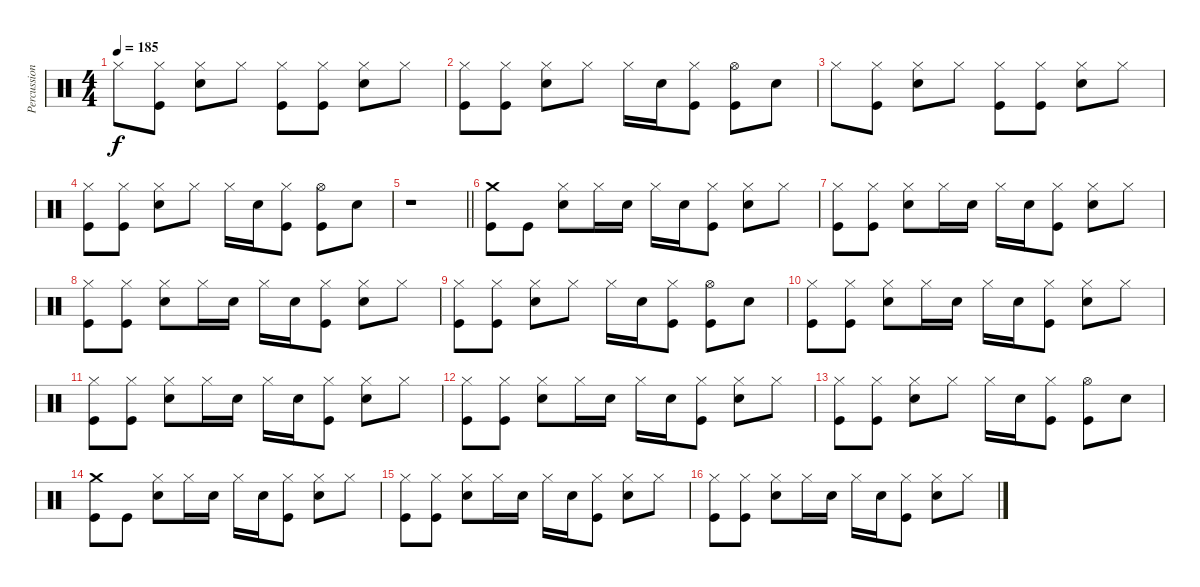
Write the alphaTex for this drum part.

\track ("Percussion" "Percussion") {instrument percussion}
\staff {score}
\articulation defaults
\ts (4 4)
\tempo 185
\clef neutral
\ks c "Hi-Hat (closed)".8{dy f}
("Hi-Hat (closed)" "Kick (hit)").8 ("Hi-Hat (closed)" "Electric Snare (hit)").8 "Hi-Hat (closed)".8 ("Hi-Hat (closed)" "Kick (hit)").8 ("Hi-Hat (closed)" "Kick (hit)").8 ("Hi-Hat (closed)" "Electric Snare (hit)").8 "Hi-Hat (closed)".8 |
("Hi-Hat (closed)" "Kick (hit)").8 ("Hi-Hat (closed)" "Kick (hit)").8 ("Hi-Hat (closed)" "Electric Snare (hit)").8 "Hi-Hat (closed)".8 "Hi-Hat (closed)".16 "Electric Snare (hit)".16 ("Hi-Hat (closed)" "Kick (hit)").8 ("Hi-Hat (open)" "Kick (hit)").8 "Electric Snare (hit)".8 |
"Hi-Hat (closed)".8 ("Hi-Hat (closed)" "Kick (hit)").8 ("Hi-Hat (closed)" "Electric Snare (hit)").8 "Hi-Hat (closed)".8 ("Hi-Hat (closed)" "Kick (hit)").8 ("Hi-Hat (closed)" "Kick (hit)").8 ("Hi-Hat (closed)" "Electric Snare (hit)").8 "Hi-Hat (closed)".8 |
("Hi-Hat (closed)" "Kick (hit)").8 ("Hi-Hat (closed)" "Kick (hit)").8 ("Hi-Hat (closed)" "Electric Snare (hit)").8 "Hi-Hat (closed)".8 "Hi-Hat (closed)".16 "Electric Snare (hit)".16 ("Hi-Hat (closed)" "Kick (hit)").8 ("Hi-Hat (open)" "Kick (hit)").8 "Electric Snare (hit)".8 |
\barLineRight lightlight
r.1 |
("Crash medium (hit)" "Kick (hit)").8 "Kick (hit)".8 ("Hi-Hat (closed)" "Electric Snare (hit)").8 "Hi-Hat (closed)".16 "Electric Snare (hit)".16 "Hi-Hat (closed)".16 "Electric Snare (hit)".16 ("Hi-Hat (closed)" "Kick (hit)").8 ("Hi-Hat (closed)" "Electric Snare (hit)").8 "Hi-Hat (closed)".8 |
("Hi-Hat (closed)" "Kick (hit)").8 ("Hi-Hat (closed)" "Kick (hit)").8 ("Hi-Hat (closed)" "Electric Snare (hit)").8 "Hi-Hat (closed)".16 "Electric Snare (hit)".16 "Hi-Hat (closed)".16 "Electric Snare (hit)".16 ("Hi-Hat (closed)" "Kick (hit)").8 ("Hi-Hat (closed)" "Electric Snare (hit)").8 "Hi-Hat (closed)".8 |
("Hi-Hat (closed)" "Kick (hit)").8 ("Hi-Hat (closed)" "Kick (hit)").8 ("Hi-Hat (closed)" "Electric Snare (hit)").8 "Hi-Hat (closed)".16 "Electric Snare (hit)".16 "Hi-Hat (closed)".16 "Electric Snare (hit)".16 ("Hi-Hat (closed)" "Kick (hit)").8 ("Hi-Hat (closed)" "Electric Snare (hit)").8 "Hi-Hat (closed)".8 |
("Hi-Hat (closed)" "Kick (hit)").8 ("Hi-Hat (closed)" "Kick (hit)").8 ("Hi-Hat (closed)" "Electric Snare (hit)").8 "Hi-Hat (closed)".8 "Hi-Hat (closed)".16 "Electric Snare (hit)".16 ("Hi-Hat (closed)" "Kick (hit)").8 ("Hi-Hat (open)" "Kick (hit)").8 "Electric Snare (hit)".8 |
("Hi-Hat (closed)" "Kick (hit)").8 ("Hi-Hat (closed)" "Kick (hit)").8 ("Hi-Hat (closed)" "Electric Snare (hit)").8 "Hi-Hat (closed)".16 "Electric Snare (hit)".16 "Hi-Hat (closed)".16 "Electric Snare (hit)".16 ("Hi-Hat (closed)" "Kick (hit)").8 ("Hi-Hat (closed)" "Electric Snare (hit)").8 "Hi-Hat (closed)".8 |
("Hi-Hat (closed)" "Kick (hit)").8 ("Hi-Hat (closed)" "Kick (hit)").8 ("Hi-Hat (closed)" "Electric Snare (hit)").8 "Hi-Hat (closed)".16 "Electric Snare (hit)".16 "Hi-Hat (closed)".16 "Electric Snare (hit)".16 ("Hi-Hat (closed)" "Kick (hit)").8 ("Hi-Hat (closed)" "Electric Snare (hit)").8 "Hi-Hat (closed)".8 |
("Hi-Hat (closed)" "Kick (hit)").8 ("Hi-Hat (closed)" "Kick (hit)").8 ("Hi-Hat (closed)" "Electric Snare (hit)").8 "Hi-Hat (closed)".16 "Electric Snare (hit)".16 "Hi-Hat (closed)".16 "Electric Snare (hit)".16 ("Hi-Hat (closed)" "Kick (hit)").8 ("Hi-Hat (closed)" "Electric Snare (hit)").8 "Hi-Hat (closed)".8 |
("Hi-Hat (closed)" "Kick (hit)").8 ("Hi-Hat (closed)" "Kick (hit)").8 ("Hi-Hat (closed)" "Electric Snare (hit)").8 "Hi-Hat (closed)".8 "Hi-Hat (closed)".16 "Electric Snare (hit)".16 ("Hi-Hat (closed)" "Kick (hit)").8 ("Hi-Hat (open)" "Kick (hit)").8 "Electric Snare (hit)".8 |
("Crash medium (hit)" "Kick (hit)").8 "Kick (hit)".8 ("Hi-Hat (closed)" "Electric Snare (hit)").8 "Hi-Hat (closed)".16 "Electric Snare (hit)".16 "Hi-Hat (closed)".16 "Electric Snare (hit)".16 ("Hi-Hat (closed)" "Kick (hit)").8 ("Hi-Hat (closed)" "Electric Snare (hit)").8 "Hi-Hat (closed)".8 |
("Hi-Hat (closed)" "Kick (hit)").8 ("Hi-Hat (closed)" "Kick (hit)").8 ("Hi-Hat (closed)" "Electric Snare (hit)").8 "Hi-Hat (closed)".16 "Electric Snare (hit)".16 "Hi-Hat (closed)".16 "Electric Snare (hit)".16 ("Hi-Hat (closed)" "Kick (hit)").8 ("Hi-Hat (closed)" "Electric Snare (hit)").8 "Hi-Hat (closed)".8 |
("Hi-Hat (closed)" "Kick (hit)").8 ("Hi-Hat (closed)" "Kick (hit)").8 ("Hi-Hat (closed)" "Electric Snare (hit)").8 "Hi-Hat (closed)".16 "Electric Snare (hit)".16 "Hi-Hat (closed)".16 "Electric Snare (hit)".16 ("Hi-Hat (closed)" "Kick (hit)").8 ("Hi-Hat (closed)" "Electric Snare (hit)").8 "Hi-Hat (closed)".8
